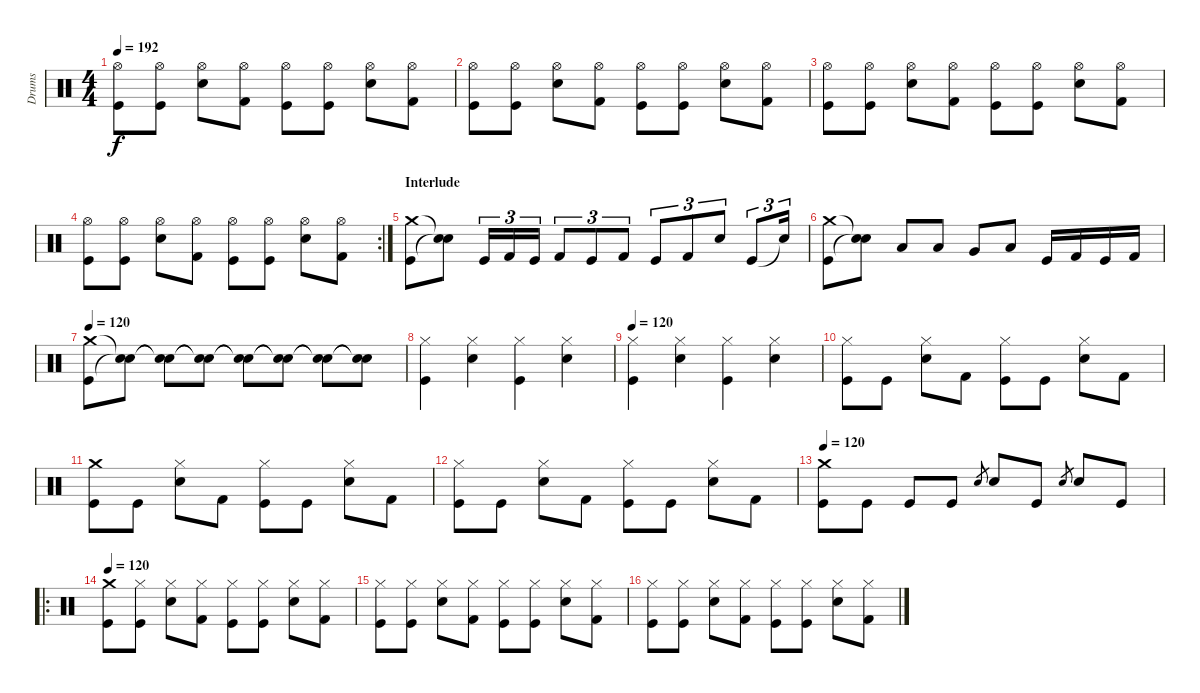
\track ("Drums" "Drums") {instrument percussion}
\staff {score}
\articulation defaults
\ts (4 4)
\tempo 192
\clef neutral
\ks c
("Hi-Hat (open)" "Kick (hit)").8{dy f} ("Hi-Hat (open)" "Kick (hit)").8 ("Hi-Hat (open)" "Electric Snare (hit)").8 ("Hi-Hat (open)" "Kick (hit) 2").8 ("Hi-Hat (open)" "Kick (hit)").8 ("Hi-Hat (open)" "Kick (hit)").8 ("Hi-Hat (open)" "Electric Snare (hit)").8 ("Hi-Hat (open)" "Kick (hit) 2").8 |
("Hi-Hat (open)" "Kick (hit)").8 ("Hi-Hat (open)" "Kick (hit)").8 ("Hi-Hat (open)" "Electric Snare (hit)").8 ("Hi-Hat (open)" "Kick (hit) 2").8 ("Hi-Hat (open)" "Kick (hit)").8 ("Hi-Hat (open)" "Kick (hit)").8 ("Hi-Hat (open)" "Electric Snare (hit)").8 ("Hi-Hat (open)" "Kick (hit) 2").8 |
("Hi-Hat (open)" "Kick (hit)").8 ("Hi-Hat (open)" "Kick (hit)").8 ("Hi-Hat (open)" "Electric Snare (hit)").8 ("Hi-Hat (open)" "Kick (hit) 2").8 ("Hi-Hat (open)" "Kick (hit)").8 ("Hi-Hat (open)" "Kick (hit)").8 ("Hi-Hat (open)" "Electric Snare (hit)").8 ("Hi-Hat (open)" "Kick (hit) 2").8 |
\rc 2
("Hi-Hat (open)" "Kick (hit)").8 ("Hi-Hat (open)" "Kick (hit)").8 ("Hi-Hat (open)" "Electric Snare (hit)").8 ("Hi-Hat (open)" "Kick (hit) 2").8 ("Hi-Hat (open)" "Kick (hit)").8 ("Hi-Hat (open)" "Kick (hit)").8 ("Hi-Hat (open)" "Electric Snare (hit)").8 ("Hi-Hat (open)" "Kick (hit) 2").8 |
\section ("" "Interlude")
("Crash medium (hit)" "Kick (hit)").8 ("Snare (hit)"{t} "Snare (hit)"{t}).8 "Kick (hit)".16{tu (3 2)} "Kick (hit) 2".16{tu (3 2)} "Kick (hit)".16{tu (3 2)} "Kick (hit) 2".8{tu (3 2)} "Kick (hit)".8{tu (3 2)} "Kick (hit) 2".8{tu (3 2)} "Kick (hit)".8{tu (3 2)} "Kick (hit) 2".8{tu (3 2)} "Electric Snare (hit)".8{tu (3 2)} "Kick (hit)".8{tu (3 2)} "Snare (hit)"{t}.16{tu (3 2)} |
("Crash medium (hit)" "Kick (hit)").8 ("Snare (hit)"{t} "Snare (hit)"{t}).8 "Low Tom (hit)".8 "Low Tom (hit)".8 "Very Low Tom (hit)".8 "Low Floor Tom (hit)".8 "Kick (hit)".16 "Kick (hit) 2".16 "Kick (hit)".16 "Kick (hit) 2".16 |
\tempo 120
("Crash medium (hit)" "Kick (hit)").8 ("Snare (hit)"{t} "Snare (hit)"{t}).8 ("Snare (hit)"{t} "Snare (hit)"{t}).8 ("Snare (hit)"{t} "Snare (hit)"{t}).8 ("Snare (hit)"{t} "Snare (hit)"{t}).8 ("Snare (hit)"{t} "Snare (hit)"{t}).8 ("Snare (hit)"{t} "Snare (hit)"{t}).8 ("Snare (hit)"{t} "Snare (hit)"{t}).8 |
("Hi-Hat (closed)" "Kick (hit)").4 ("Hi-Hat (closed)" "Electric Snare (hit)").4 ("Hi-Hat (closed)" "Kick (hit)").4 ("Hi-Hat (closed)" "Electric Snare (hit)").4 |
\tempo 120
("Hi-Hat (closed)" "Kick (hit)").4 ("Hi-Hat (closed)" "Electric Snare (hit)").4 ("Hi-Hat (closed)" "Kick (hit)").4 ("Hi-Hat (closed)" "Electric Snare (hit)").4 |
("Hi-Hat (closed)" "Kick (hit)").8 "Kick (hit)".8 ("Hi-Hat (closed)" "Electric Snare (hit)").8 "Kick (hit) 2".8 ("Hi-Hat (closed)" "Kick (hit)").8 "Kick (hit)".8 ("Hi-Hat (closed)" "Electric Snare (hit)").8 "Kick (hit) 2".8 |
("Crash medium (hit)" "Kick (hit)").8 "Kick (hit)".8 ("Hi-Hat (closed)" "Electric Snare (hit)").8 "Kick (hit) 2".8 ("Hi-Hat (closed)" "Kick (hit)").8 "Kick (hit)".8 ("Hi-Hat (closed)" "Electric Snare (hit)").8 "Kick (hit) 2".8 |
("Hi-Hat (closed)" "Kick (hit)").8 "Kick (hit)".8 ("Hi-Hat (closed)" "Electric Snare (hit)").8 "Kick (hit) 2".8 ("Hi-Hat (closed)" "Kick (hit)").8 "Kick (hit)".8 ("Hi-Hat (closed)" "Electric Snare (hit)").8 "Kick (hit) 2".8 |
\tempo 120
("Crash medium (hit)" "Kick (hit)").8 "Kick (hit)".8 "Kick (hit)".8 "Kick (hit)".8 "Electric Snare (hit)".8{gr} "Electric Snare (hit)".8 "Kick (hit)".8 "Electric Snare (hit)".8{gr} "Electric Snare (hit)".8 "Kick (hit)".8 |
\ro
\tempo 120
("Crash medium (hit)" "Kick (hit)").8 ("Hi-Hat (closed)" "Kick (hit)").8 ("Hi-Hat (closed)" "Electric Snare (hit)").8 ("Hi-Hat (closed)" "Kick (hit) 2").8 ("Hi-Hat (closed)" "Kick (hit)").8 ("Hi-Hat (closed)" "Kick (hit)").8 ("Hi-Hat (closed)" "Electric Snare (hit)").8 ("Hi-Hat (closed)" "Kick (hit) 2").8 |
("Hi-Hat (closed)" "Kick (hit)").8 ("Hi-Hat (closed)" "Kick (hit)").8 ("Hi-Hat (closed)" "Electric Snare (hit)").8 ("Hi-Hat (closed)" "Kick (hit) 2").8 ("Hi-Hat (closed)" "Kick (hit)").8 ("Hi-Hat (closed)" "Kick (hit)").8 ("Hi-Hat (closed)" "Electric Snare (hit)").8 ("Hi-Hat (closed)" "Kick (hit) 2").8 |
("Hi-Hat (closed)" "Kick (hit)").8 ("Hi-Hat (closed)" "Kick (hit)").8 ("Hi-Hat (closed)" "Electric Snare (hit)").8 ("Hi-Hat (closed)" "Kick (hit) 2").8 ("Hi-Hat (closed)" "Kick (hit)").8 ("Hi-Hat (closed)" "Kick (hit)").8 ("Hi-Hat (closed)" "Electric Snare (hit)").8 ("Hi-Hat (closed)" "Kick (hit) 2").8
